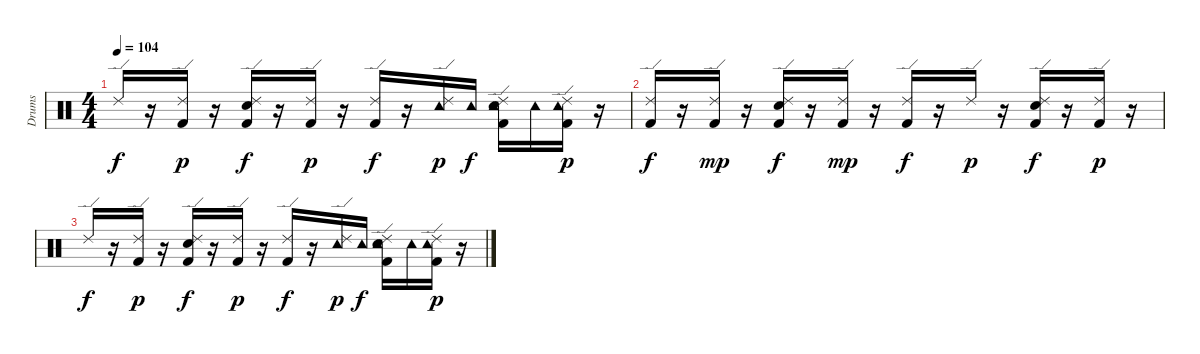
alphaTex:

\track ("Drums" "Drums") {instrument percussion}
\staff {score}
\articulation defaults
\ts (4 4)
\tempo 104
\clef neutral
\ks c "Ride (edge) 2".16{dy f}
r.16 ("Ride (edge) 2" "Kick (hit) 2").16{dy p} r.16 ("Ride (edge) 2" "Kick (hit) 2" "Snare (hit) 2").16{dy f} r.16 ("Ride (edge) 2" "Kick (hit) 2").16{dy p} r.16 ("Ride (edge) 2" "Kick (hit) 2").16{dy f} r.16 ("Tambourine (hit)" "Ride (edge) 2").16{dy p} "Tambourine (hit)".16{dy f} ("Tambourine (hit)" "Ride (edge) 2" "Kick (hit) 2" "Snare (hit) 2").16 "Tambourine (hit)".16 ("Tambourine (hit)" "Ride (edge) 2" "Kick (hit) 2").16{dy p} r.16 |
("Ride (edge) 2" "Kick (hit) 2").16{dy f} r.16 ("Ride (edge) 2" "Kick (hit) 2").16{dy mp} r.16 ("Ride (edge) 2" "Snare (hit) 2" "Kick (hit) 2").16{dy f} r.16 ("Ride (edge) 2" "Kick (hit) 2").16{dy mp} r.16 ("Ride (edge) 2" "Kick (hit) 2").16{dy f} r.16 "Ride (edge) 2".16{dy p} r.16 ("Ride (edge) 2" "Kick (hit) 2" "Snare (hit) 2").16{dy f} r.16 ("Ride (edge) 2" "Kick (hit) 2").16{dy p} r.16 |
"Ride (edge) 2".16{dy f} r.16 ("Ride (edge) 2" "Kick (hit) 2").16{dy p} r.16 ("Ride (edge) 2" "Kick (hit) 2" "Snare (hit) 2").16{dy f} r.16 ("Ride (edge) 2" "Kick (hit) 2").16{dy p} r.16 ("Ride (edge) 2" "Kick (hit) 2").16{dy f} r.16 ("Tambourine (hit)" "Ride (edge) 2").16{dy p} "Tambourine (hit)".16{dy f} ("Tambourine (hit)" "Ride (edge) 2" "Kick (hit) 2" "Snare (hit) 2").16 "Tambourine (hit)".16 ("Tambourine (hit)" "Ride (edge) 2" "Kick (hit) 2").16{dy p} r.16
